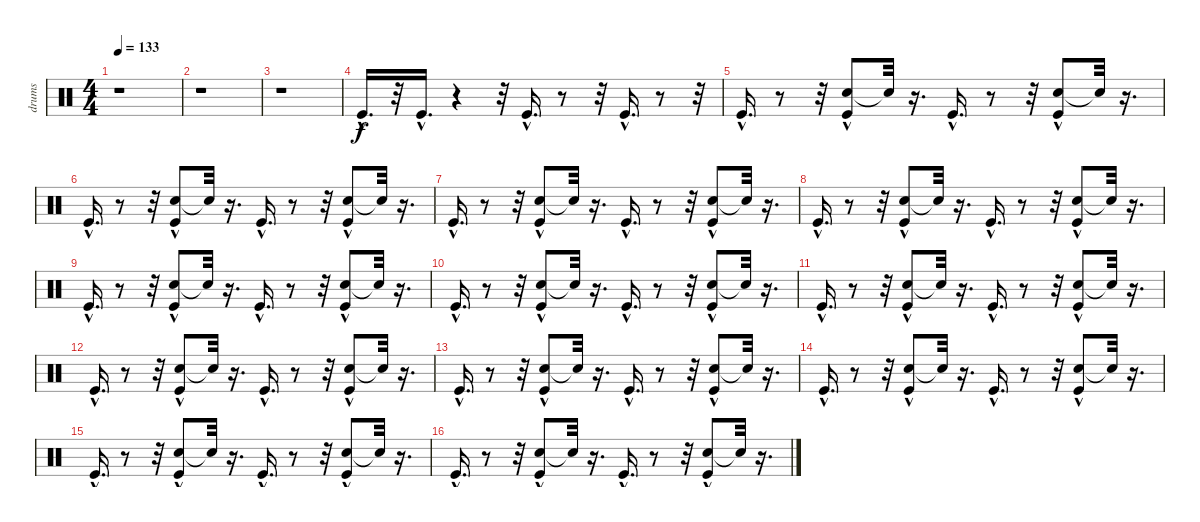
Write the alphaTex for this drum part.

\track ("drums" "drums") {instrument percussion}
\staff {score}
\articulation defaults
\ts (4 4)
\tempo 133
\clef neutral
\ks c
r.1{dy f} |
r.1 |
r.1 |
"Kick (hit)"{hac}.16{d} r.32 "Kick (hit)"{hac}.16{d} r.4 r.32 "Kick (hit)"{hac}.16{d} r.8 r.32 "Kick (hit)"{hac}.16{d} r.8 r.32 |
"Kick (hit)"{hac}.16{d} r.8 r.32 ("Hand Clap (hit)" "Kick (hit)"{hac}).8 "Snare (hit)"{t}.32 r.16{d} "Kick (hit)"{hac}.16{d} r.8 r.32 ("Hand Clap (hit)" "Kick (hit)"{hac}).8 "Snare (hit)"{t}.32 r.16{d} |
"Kick (hit)"{hac}.16{d} r.8 r.32 ("Hand Clap (hit)" "Kick (hit)"{hac}).8 "Snare (hit)"{t}.32 r.16{d} "Kick (hit)"{hac}.16{d} r.8 r.32 ("Hand Clap (hit)" "Kick (hit)"{hac}).8 "Snare (hit)"{t}.32 r.16{d} |
"Kick (hit)"{hac}.16{d} r.8 r.32 ("Hand Clap (hit)" "Kick (hit)"{hac}).8 "Snare (hit)"{t}.32 r.16{d} "Kick (hit)"{hac}.16{d} r.8 r.32 ("Hand Clap (hit)" "Kick (hit)"{hac}).8 "Snare (hit)"{t}.32 r.16{d} |
"Kick (hit)"{hac}.16{d} r.8 r.32 ("Hand Clap (hit)" "Kick (hit)"{hac}).8 "Snare (hit)"{t}.32 r.16{d} "Kick (hit)"{hac}.16{d} r.8 r.32 ("Hand Clap (hit)" "Kick (hit)"{hac}).8 "Snare (hit)"{t}.32 r.16{d} |
"Kick (hit)"{hac}.16{d} r.8 r.32 ("Hand Clap (hit)" "Kick (hit)"{hac}).8 "Snare (hit)"{t}.32 r.16{d} "Kick (hit)"{hac}.16{d} r.8 r.32 ("Hand Clap (hit)" "Kick (hit)"{hac}).8 "Snare (hit)"{t}.32 r.16{d} |
"Kick (hit)"{hac}.16{d} r.8 r.32 ("Hand Clap (hit)" "Kick (hit)"{hac}).8 "Snare (hit)"{t}.32 r.16{d} "Kick (hit)"{hac}.16{d} r.8 r.32 ("Hand Clap (hit)" "Kick (hit)"{hac}).8 "Snare (hit)"{t}.32 r.16{d} |
"Kick (hit)"{hac}.16{d} r.8 r.32 ("Hand Clap (hit)" "Kick (hit)"{hac}).8 "Snare (hit)"{t}.32 r.16{d} "Kick (hit)"{hac}.16{d} r.8 r.32 ("Hand Clap (hit)" "Kick (hit)"{hac}).8 "Snare (hit)"{t}.32 r.16{d} |
"Kick (hit)"{hac}.16{d} r.8 r.32 ("Hand Clap (hit)" "Kick (hit)"{hac}).8 "Snare (hit)"{t}.32 r.16{d} "Kick (hit)"{hac}.16{d} r.8 r.32 ("Hand Clap (hit)" "Kick (hit)"{hac}).8 "Snare (hit)"{t}.32 r.16{d} |
"Kick (hit)"{hac}.16{d} r.8 r.32 ("Hand Clap (hit)" "Kick (hit)"{hac}).8 "Snare (hit)"{t}.32 r.16{d} "Kick (hit)"{hac}.16{d} r.8 r.32 ("Hand Clap (hit)" "Kick (hit)"{hac}).8 "Snare (hit)"{t}.32 r.16{d} |
"Kick (hit)"{hac}.16{d} r.8 r.32 ("Hand Clap (hit)" "Kick (hit)"{hac}).8 "Snare (hit)"{t}.32 r.16{d} "Kick (hit)"{hac}.16{d} r.8 r.32 ("Hand Clap (hit)" "Kick (hit)"{hac}).8 "Snare (hit)"{t}.32 r.16{d} |
"Kick (hit)"{hac}.16{d} r.8 r.32 ("Hand Clap (hit)" "Kick (hit)"{hac}).8 "Snare (hit)"{t}.32 r.16{d} "Kick (hit)"{hac}.16{d} r.8 r.32 ("Hand Clap (hit)" "Kick (hit)"{hac}).8 "Snare (hit)"{t}.32 r.16{d} |
"Kick (hit)"{hac}.16{d} r.8 r.32 ("Hand Clap (hit)" "Kick (hit)"{hac}).8 "Snare (hit)"{t}.32 r.16{d} "Kick (hit)"{hac}.16{d} r.8 r.32 ("Hand Clap (hit)" "Kick (hit)"{hac}).8 "Snare (hit)"{t}.32 r.16{d}
